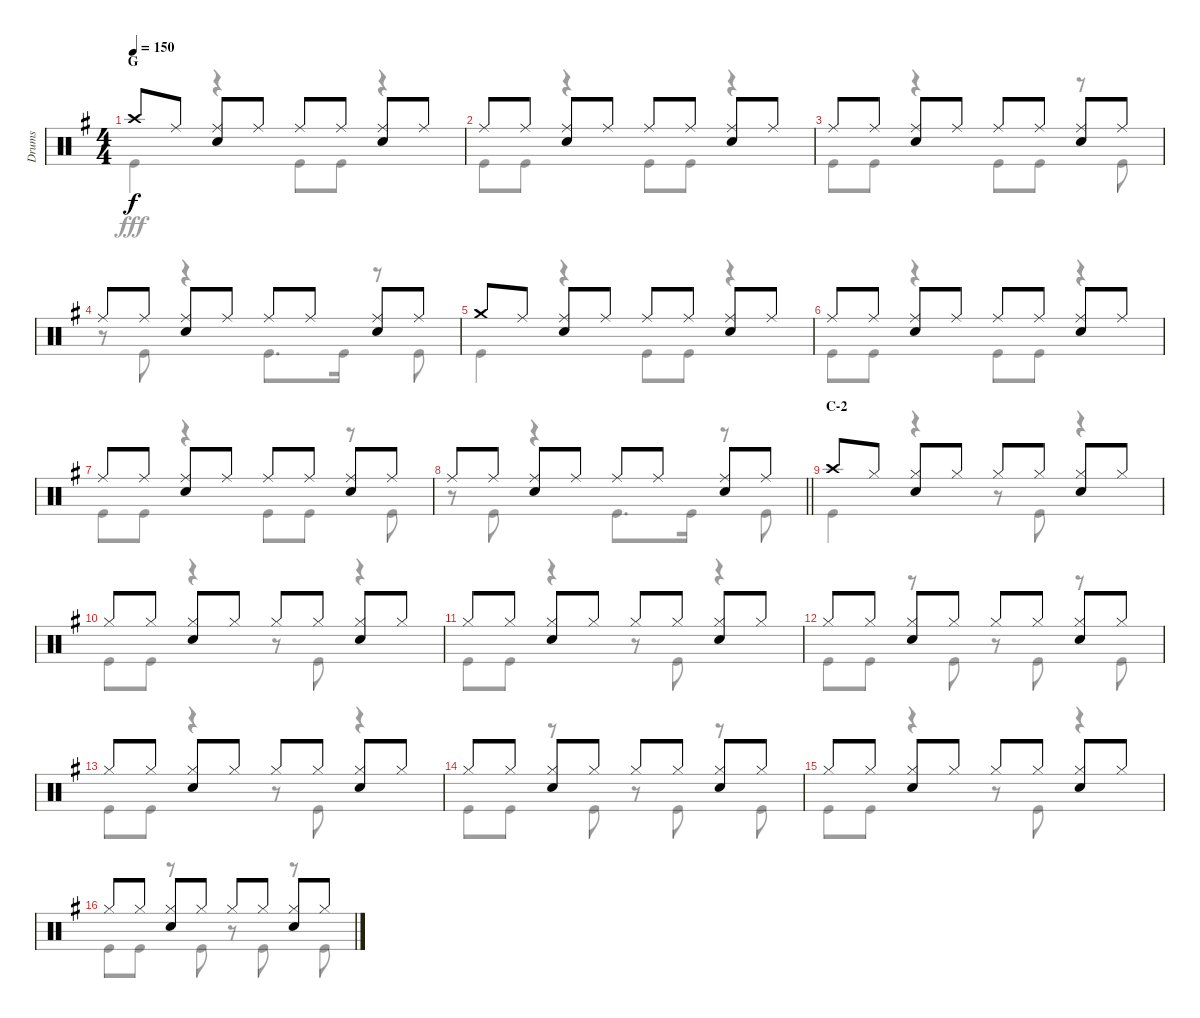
\track ("Drums" "Drums") {instrument percussion}
\staff {score}
\articulation defaults
\voice
\ts (4 4)
\section ("" "G")
\tempo 150
\clef neutral
\ks g "Crash high (hit)".8{dy f} "Ride (middle)".8
("Ride (middle)" "Snare (hit) 2").8 "Ride (middle)".8 "Ride (middle)".8 "Ride (middle)".8 ("Ride (middle)" "Snare (hit) 2").8 "Ride (middle)".8 |
"Ride (middle)".8 "Ride (middle)".8 ("Ride (middle)" "Snare (hit) 2").8 "Ride (middle)".8 "Ride (middle)".8 "Ride (middle)".8 ("Ride (middle)" "Snare (hit) 2").8 "Ride (middle)".8 |
"Ride (middle)".8 "Ride (middle)".8 ("Ride (middle)" "Snare (hit) 2").8 "Ride (middle)".8 "Ride (middle)".8 "Ride (middle)".8 ("Ride (middle)" "Snare (hit) 2").8 "Ride (middle)".8 |
"Ride (middle)".8 "Ride (middle)".8 ("Ride (middle)" "Snare (hit) 2").8 "Ride (middle)".8 "Ride (middle)".8 "Ride (middle)".8 ("Ride (middle)" "Snare (hit) 2").8 "Ride (middle)".8 |
"Crash medium (hit)".8 "Ride (middle)".8 ("Ride (middle)" "Snare (hit) 2").8 "Ride (middle)".8 "Ride (middle)".8 "Ride (middle)".8 ("Ride (middle)" "Snare (hit) 2").8 "Ride (middle)".8 |
"Ride (middle)".8 "Ride (middle)".8 ("Ride (middle)" "Snare (hit) 2").8 "Ride (middle)".8 "Ride (middle)".8 "Ride (middle)".8 ("Ride (middle)" "Snare (hit) 2").8 "Ride (middle)".8 |
"Ride (middle)".8 "Ride (middle)".8 ("Ride (middle)" "Snare (hit) 2").8 "Ride (middle)".8 "Ride (middle)".8 "Ride (middle)".8 ("Ride (middle)" "Snare (hit) 2").8 "Ride (middle)".8 |
\barLineRight lightlight "Ride (middle)".8 "Ride (middle)".8
("Ride (middle)" "Snare (hit) 2").8 "Ride (middle)".8 "Ride (middle)".8 "Ride (middle)".8 ("Ride (middle)" "Snare (hit) 2").8 "Ride (middle)".8 |
\section ("" "C-2")
"Crash high (hit)".8 "Hi-Hat (closed)".8 ("Hi-Hat (closed)" "Snare (hit) 2").8 "Hi-Hat (closed)".8 "Hi-Hat (closed)".8 "Hi-Hat (closed)".8 ("Hi-Hat (closed)" "Snare (hit) 2").8 "Hi-Hat (closed)".8 |
"Hi-Hat (closed)".8 "Hi-Hat (closed)".8 ("Hi-Hat (closed)" "Snare (hit) 2").8 "Hi-Hat (closed)".8 "Hi-Hat (closed)".8 "Hi-Hat (closed)".8 ("Hi-Hat (closed)" "Snare (hit) 2").8 "Hi-Hat (closed)".8 |
"Hi-Hat (closed)".8 "Hi-Hat (closed)".8 ("Hi-Hat (closed)" "Snare (hit) 2").8 "Hi-Hat (closed)".8 "Hi-Hat (closed)".8 "Hi-Hat (closed)".8 ("Hi-Hat (closed)" "Snare (hit) 2").8 "Hi-Hat (closed)".8 |
"Hi-Hat (closed)".8 "Hi-Hat (closed)".8 ("Hi-Hat (closed)" "Snare (hit) 2").8 "Hi-Hat (closed)".8 "Hi-Hat (closed)".8 "Hi-Hat (closed)".8 ("Hi-Hat (closed)" "Snare (hit) 2").8 "Hi-Hat (closed)".8 |
"Hi-Hat (closed)".8 "Hi-Hat (closed)".8 ("Hi-Hat (closed)" "Snare (hit) 2").8 "Hi-Hat (closed)".8 "Hi-Hat (closed)".8 "Hi-Hat (closed)".8 ("Hi-Hat (closed)" "Snare (hit) 2").8 "Hi-Hat (closed)".8 |
"Hi-Hat (closed)".8 "Hi-Hat (closed)".8 ("Hi-Hat (closed)" "Snare (hit) 2").8 "Hi-Hat (closed)".8 "Hi-Hat (closed)".8 "Hi-Hat (closed)".8 ("Hi-Hat (closed)" "Snare (hit) 2").8 "Hi-Hat (closed)".8 |
"Hi-Hat (closed)".8 "Hi-Hat (closed)".8 ("Hi-Hat (closed)" "Snare (hit) 2").8 "Hi-Hat (closed)".8 "Hi-Hat (closed)".8 "Hi-Hat (closed)".8 ("Hi-Hat (closed)" "Snare (hit) 2").8 "Hi-Hat (closed)".8 |
"Hi-Hat (closed)".8 "Hi-Hat (closed)".8 ("Hi-Hat (closed)" "Snare (hit) 2").8 "Hi-Hat (closed)".8 "Hi-Hat (closed)".8 "Hi-Hat (closed)".8 ("Hi-Hat (closed)" "Snare (hit) 2").8 "Hi-Hat (closed)".8
\voice
\clef neutral
\ottava regular
\simile none
\ks g "Kick (hit)".4{dy fff}
r.4 "Kick (hit)".8 "Kick (hit)".8 r.4 |
"Kick (hit)".8 "Kick (hit)".8 r.4 "Kick (hit)".8 "Kick (hit)".8 r.4 |
"Kick (hit)".8 "Kick (hit)".8 r.4 "Kick (hit)".8 "Kick (hit)".8 r.8 "Kick (hit)".8 |
r.8 "Kick (hit)".8 r.4 "Kick (hit)".8{d} "Kick (hit)".16 r.8 "Kick (hit)".8 |
"Kick (hit)".4 r.4 "Kick (hit)".8 "Kick (hit)".8 r.4 |
"Kick (hit)".8 "Kick (hit)".8 r.4 "Kick (hit)".8 "Kick (hit)".8 r.4 |
"Kick (hit)".8 "Kick (hit)".8 r.4 "Kick (hit)".8 "Kick (hit)".8 r.8 "Kick (hit)".8 |
\barLineRight lightlight
r.8 "Kick (hit)".8 r.4 "Kick (hit)".8{d} "Kick (hit)".16 r.8 "Kick (hit)".8 |
"Kick (hit)".4 r.4 r.8 "Kick (hit)".8 r.4 |
"Kick (hit)".8 "Kick (hit)".8 r.4 r.8 "Kick (hit)".8 r.4 |
"Kick (hit)".8 "Kick (hit)".8 r.4 r.8 "Kick (hit)".8 r.4 |
"Kick (hit)".8 "Kick (hit)".8 r.8 "Kick (hit)".8 r.8 "Kick (hit)".8 r.8 "Kick (hit)".8 |
"Kick (hit)".8 "Kick (hit)".8 r.4 r.8 "Kick (hit)".8 r.4 |
"Kick (hit)".8 "Kick (hit)".8 r.8 "Kick (hit)".8 r.8 "Kick (hit)".8 r.8 "Kick (hit)".8 |
"Kick (hit)".8 "Kick (hit)".8 r.4 r.8 "Kick (hit)".8 r.4 |
"Kick (hit)".8 "Kick (hit)".8 r.8 "Kick (hit)".8 r.8 "Kick (hit)".8 r.8 "Kick (hit)".8
